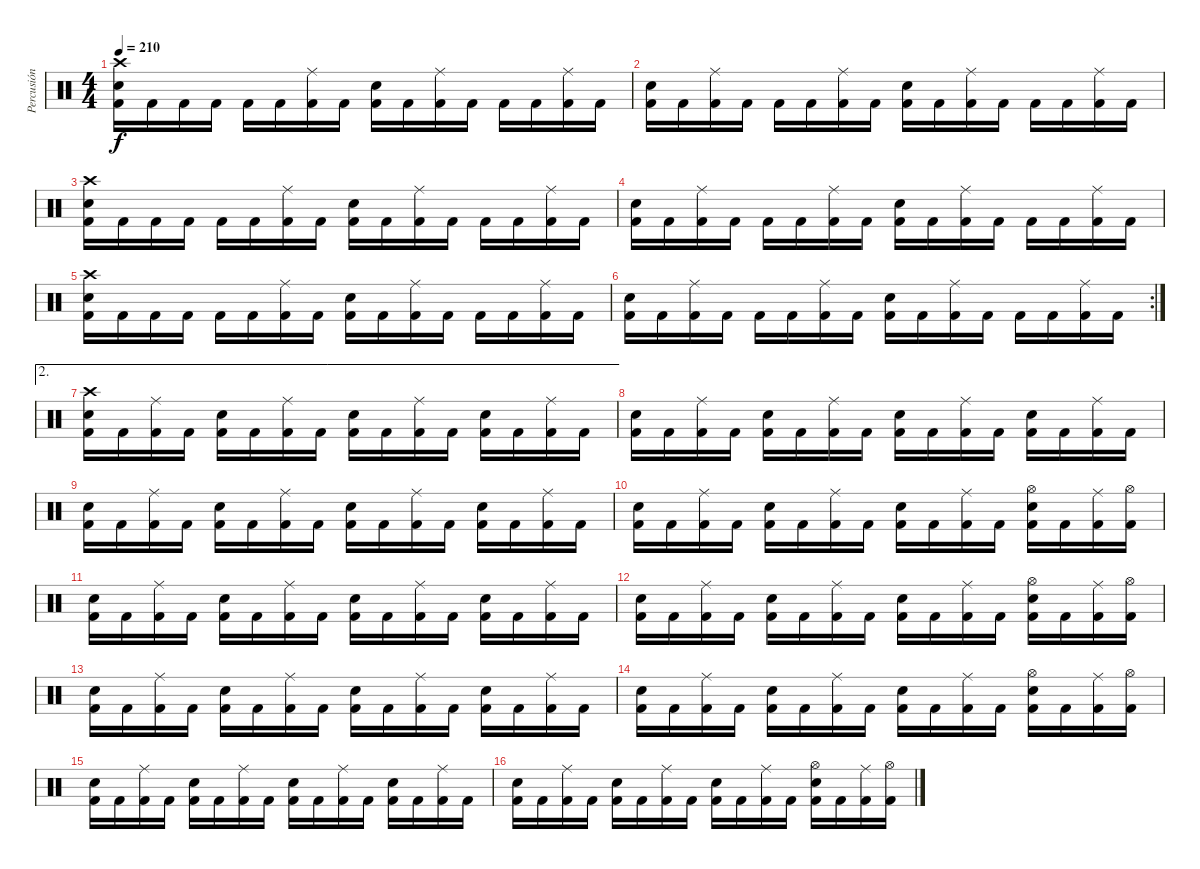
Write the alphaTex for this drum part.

\track ("Percusión" "Percusión") {instrument percussion}
\staff {score}
\articulation defaults
\ts (4 4)
\tempo 210
\clef neutral
\ks c
("Kick (hit) 2" "Snare (hit) 2" "Crash high (hit)").16{dy f} "Kick (hit) 2".16 "Kick (hit) 2".16 "Kick (hit) 2".16 "Kick (hit) 2".16 "Kick (hit) 2".16 ("Kick (hit) 2" "Ride (middle)").16 "Kick (hit) 2".16 ("Kick (hit) 2" "Snare (hit) 2").16 "Kick (hit) 2".16 ("Kick (hit) 2" "Ride (middle)").16 "Kick (hit) 2".16 "Kick (hit) 2".16 "Kick (hit) 2".16 ("Kick (hit) 2" "Ride (middle)").16 "Kick (hit) 2".16 |
("Kick (hit) 2" "Snare (hit) 2").16 "Kick (hit) 2".16 ("Kick (hit) 2" "Ride (middle)").16 "Kick (hit) 2".16 "Kick (hit) 2".16 "Kick (hit) 2".16 ("Kick (hit) 2" "Ride (middle)").16 "Kick (hit) 2".16 ("Kick (hit) 2" "Snare (hit) 2").16 "Kick (hit) 2".16 ("Kick (hit) 2" "Ride (middle)").16 "Kick (hit) 2".16 "Kick (hit) 2".16 "Kick (hit) 2".16 ("Kick (hit) 2" "Ride (middle)").16 "Kick (hit) 2".16 |
("Kick (hit) 2" "Snare (hit) 2" "Crash high (hit)").16 "Kick (hit) 2".16 "Kick (hit) 2".16 "Kick (hit) 2".16 "Kick (hit) 2".16 "Kick (hit) 2".16 ("Kick (hit) 2" "Ride (middle)").16 "Kick (hit) 2".16 ("Kick (hit) 2" "Snare (hit) 2").16 "Kick (hit) 2".16 ("Kick (hit) 2" "Ride (middle)").16 "Kick (hit) 2".16 "Kick (hit) 2".16 "Kick (hit) 2".16 ("Kick (hit) 2" "Ride (middle)").16 "Kick (hit) 2".16 |
("Kick (hit) 2" "Snare (hit) 2").16 "Kick (hit) 2".16 ("Kick (hit) 2" "Ride (middle)").16 "Kick (hit) 2".16 "Kick (hit) 2".16 "Kick (hit) 2".16 ("Kick (hit) 2" "Ride (middle)").16 "Kick (hit) 2".16 ("Kick (hit) 2" "Snare (hit) 2").16 "Kick (hit) 2".16 ("Kick (hit) 2" "Ride (middle)").16 "Kick (hit) 2".16 "Kick (hit) 2".16 "Kick (hit) 2".16 ("Kick (hit) 2" "Ride (middle)").16 "Kick (hit) 2".16 |
("Kick (hit) 2" "Snare (hit) 2" "Crash high (hit)").16 "Kick (hit) 2".16 "Kick (hit) 2".16 "Kick (hit) 2".16 "Kick (hit) 2".16 "Kick (hit) 2".16 ("Kick (hit) 2" "Ride (middle)").16 "Kick (hit) 2".16 ("Kick (hit) 2" "Snare (hit) 2").16 "Kick (hit) 2".16 ("Kick (hit) 2" "Ride (middle)").16 "Kick (hit) 2".16 "Kick (hit) 2".16 "Kick (hit) 2".16 ("Kick (hit) 2" "Ride (middle)").16 "Kick (hit) 2".16 |
\rc 2
("Kick (hit) 2" "Snare (hit) 2").16 "Kick (hit) 2".16 ("Kick (hit) 2" "Ride (middle)").16 "Kick (hit) 2".16 "Kick (hit) 2".16 "Kick (hit) 2".16 ("Kick (hit) 2" "Ride (middle)").16 "Kick (hit) 2".16 ("Kick (hit) 2" "Snare (hit) 2").16 "Kick (hit) 2".16 ("Kick (hit) 2" "Ride (middle)").16 "Kick (hit) 2".16 "Kick (hit) 2".16 "Kick (hit) 2".16 ("Kick (hit) 2" "Ride (middle)").16 "Kick (hit) 2".16 |
\ae 2
("Kick (hit) 2" "Snare (hit) 2" "Crash high (hit)").16 "Kick (hit) 2".16 ("Kick (hit) 2" "Ride (middle)").16 "Kick (hit) 2".16 ("Kick (hit) 2" "Snare (hit) 2").16 "Kick (hit) 2".16 ("Kick (hit) 2" "Ride (middle)").16 "Kick (hit) 2".16 ("Kick (hit) 2" "Snare (hit) 2").16 "Kick (hit) 2".16 ("Kick (hit) 2" "Ride (middle)").16 "Kick (hit) 2".16 ("Kick (hit) 2" "Snare (hit) 2").16 "Kick (hit) 2".16 ("Kick (hit) 2" "Ride (middle)").16 "Kick (hit) 2".16 |
("Kick (hit) 2" "Snare (hit) 2").16 "Kick (hit) 2".16 ("Kick (hit) 2" "Ride (middle)").16 "Kick (hit) 2".16 ("Kick (hit) 2" "Snare (hit) 2").16 "Kick (hit) 2".16 ("Kick (hit) 2" "Ride (middle)").16 "Kick (hit) 2".16 ("Kick (hit) 2" "Snare (hit) 2").16 "Kick (hit) 2".16 ("Kick (hit) 2" "Ride (middle)").16 "Kick (hit) 2".16 ("Kick (hit) 2" "Snare (hit) 2").16 "Kick (hit) 2".16 ("Kick (hit) 2" "Ride (middle)").16 "Kick (hit) 2".16 |
("Kick (hit) 2" "Snare (hit) 2").16 "Kick (hit) 2".16 ("Kick (hit) 2" "Ride (middle)").16 "Kick (hit) 2".16 ("Kick (hit) 2" "Snare (hit) 2").16 "Kick (hit) 2".16 ("Kick (hit) 2" "Ride (middle)").16 "Kick (hit) 2".16 ("Kick (hit) 2" "Snare (hit) 2").16 "Kick (hit) 2".16 ("Kick (hit) 2" "Ride (middle)").16 "Kick (hit) 2".16 ("Kick (hit) 2" "Snare (hit) 2").16 "Kick (hit) 2".16 ("Kick (hit) 2" "Ride (middle)").16 "Kick (hit) 2".16 |
("Kick (hit) 2" "Snare (hit) 2").16 "Kick (hit) 2".16 ("Kick (hit) 2" "Ride (middle)").16 "Kick (hit) 2".16 ("Kick (hit) 2" "Snare (hit) 2").16 "Kick (hit) 2".16 ("Kick (hit) 2" "Ride (middle)").16 "Kick (hit) 2".16 ("Kick (hit) 2" "Snare (hit) 2").16 "Kick (hit) 2".16 ("Kick (hit) 2" "Ride (middle)").16 "Kick (hit) 2".16 ("Kick (hit) 2" "Snare (hit) 2" "Hi-Hat (open)").16 "Kick (hit) 2".16 ("Kick (hit) 2" "Ride (middle)").16 ("Kick (hit) 2" "Hi-Hat (open)").16 |
("Kick (hit) 2" "Snare (hit) 2").16 "Kick (hit) 2".16 ("Kick (hit) 2" "Ride (middle)").16 "Kick (hit) 2".16 ("Kick (hit) 2" "Snare (hit) 2").16 "Kick (hit) 2".16 ("Kick (hit) 2" "Ride (middle)").16 "Kick (hit) 2".16 ("Kick (hit) 2" "Snare (hit) 2").16 "Kick (hit) 2".16 ("Kick (hit) 2" "Ride (middle)").16 "Kick (hit) 2".16 ("Kick (hit) 2" "Snare (hit) 2").16 "Kick (hit) 2".16 ("Kick (hit) 2" "Ride (middle)").16 "Kick (hit) 2".16 |
("Kick (hit) 2" "Snare (hit) 2").16 "Kick (hit) 2".16 ("Kick (hit) 2" "Ride (middle)").16 "Kick (hit) 2".16 ("Kick (hit) 2" "Snare (hit) 2").16 "Kick (hit) 2".16 ("Kick (hit) 2" "Ride (middle)").16 "Kick (hit) 2".16 ("Kick (hit) 2" "Snare (hit) 2").16 "Kick (hit) 2".16 ("Kick (hit) 2" "Ride (middle)").16 "Kick (hit) 2".16 ("Kick (hit) 2" "Snare (hit) 2" "Hi-Hat (open)").16 "Kick (hit) 2".16 ("Kick (hit) 2" "Ride (middle)").16 ("Kick (hit) 2" "Hi-Hat (open)").16 |
("Kick (hit) 2" "Snare (hit) 2").16 "Kick (hit) 2".16 ("Kick (hit) 2" "Ride (middle)").16 "Kick (hit) 2".16 ("Kick (hit) 2" "Snare (hit) 2").16 "Kick (hit) 2".16 ("Kick (hit) 2" "Ride (middle)").16 "Kick (hit) 2".16 ("Kick (hit) 2" "Snare (hit) 2").16 "Kick (hit) 2".16 ("Kick (hit) 2" "Ride (middle)").16 "Kick (hit) 2".16 ("Kick (hit) 2" "Snare (hit) 2").16 "Kick (hit) 2".16 ("Kick (hit) 2" "Ride (middle)").16 "Kick (hit) 2".16 |
("Kick (hit) 2" "Snare (hit) 2").16 "Kick (hit) 2".16 ("Kick (hit) 2" "Ride (middle)").16 "Kick (hit) 2".16 ("Kick (hit) 2" "Snare (hit) 2").16 "Kick (hit) 2".16 ("Kick (hit) 2" "Ride (middle)").16 "Kick (hit) 2".16 ("Kick (hit) 2" "Snare (hit) 2").16 "Kick (hit) 2".16 ("Kick (hit) 2" "Ride (middle)").16 "Kick (hit) 2".16 ("Kick (hit) 2" "Snare (hit) 2" "Hi-Hat (open)").16 "Kick (hit) 2".16 ("Kick (hit) 2" "Ride (middle)").16 ("Kick (hit) 2" "Hi-Hat (open)").16 |
("Kick (hit) 2" "Snare (hit) 2").16 "Kick (hit) 2".16 ("Kick (hit) 2" "Ride (middle)").16 "Kick (hit) 2".16 ("Kick (hit) 2" "Snare (hit) 2").16 "Kick (hit) 2".16 ("Kick (hit) 2" "Ride (middle)").16 "Kick (hit) 2".16 ("Kick (hit) 2" "Snare (hit) 2").16 "Kick (hit) 2".16 ("Kick (hit) 2" "Ride (middle)").16 "Kick (hit) 2".16 ("Kick (hit) 2" "Snare (hit) 2").16 "Kick (hit) 2".16 ("Kick (hit) 2" "Ride (middle)").16 "Kick (hit) 2".16 |
("Kick (hit) 2" "Snare (hit) 2").16 "Kick (hit) 2".16 ("Kick (hit) 2" "Ride (middle)").16 "Kick (hit) 2".16 ("Kick (hit) 2" "Snare (hit) 2").16 "Kick (hit) 2".16 ("Kick (hit) 2" "Ride (middle)").16 "Kick (hit) 2".16 ("Kick (hit) 2" "Snare (hit) 2").16 "Kick (hit) 2".16 ("Kick (hit) 2" "Ride (middle)").16 "Kick (hit) 2".16 ("Kick (hit) 2" "Snare (hit) 2" "Hi-Hat (open)").16 "Kick (hit) 2".16 ("Kick (hit) 2" "Ride (middle)").16 ("Kick (hit) 2" "Hi-Hat (open)").16
